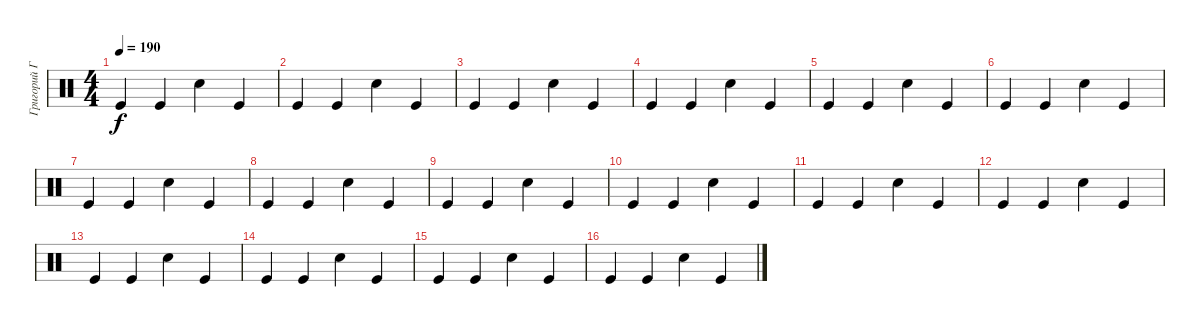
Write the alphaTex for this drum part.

\track ("Григорий Габерман" "Григорий Г") {instrument percussion}
\staff {score}
\articulation defaults
\ts (4 4)
\tempo 190
\clef neutral
\ks c "Kick (hit)".4{dy f} "Kick (hit)".4 "Snare (hit) 2".4 "Kick (hit)".4
|
"Kick (hit)".4 "Kick (hit)".4 "Snare (hit) 2".4 "Kick (hit)".4 |
"Kick (hit)".4 "Kick (hit)".4 "Snare (hit) 2".4 "Kick (hit)".4 |
"Kick (hit)".4 "Kick (hit)".4 "Snare (hit) 2".4 "Kick (hit)".4 |
"Kick (hit)".4 "Kick (hit)".4 "Snare (hit) 2".4 "Kick (hit)".4 |
"Kick (hit)".4 "Kick (hit)".4 "Snare (hit) 2".4 "Kick (hit)".4 |
"Kick (hit)".4 "Kick (hit)".4 "Snare (hit) 2".4 "Kick (hit)".4 |
"Kick (hit)".4 "Kick (hit)".4 "Snare (hit) 2".4 "Kick (hit)".4 |
"Kick (hit)".4 "Kick (hit)".4 "Snare (hit) 2".4 "Kick (hit)".4 |
"Kick (hit)".4 "Kick (hit)".4 "Snare (hit) 2".4 "Kick (hit)".4 |
"Kick (hit)".4 "Kick (hit)".4 "Snare (hit) 2".4 "Kick (hit)".4 |
"Kick (hit)".4 "Kick (hit)".4 "Snare (hit) 2".4 "Kick (hit)".4 |
"Kick (hit)".4 "Kick (hit)".4 "Snare (hit) 2".4 "Kick (hit)".4 |
"Kick (hit)".4 "Kick (hit)".4 "Snare (hit) 2".4 "Kick (hit)".4 |
"Kick (hit)".4 "Kick (hit)".4 "Snare (hit) 2".4 "Kick (hit)".4 |
"Kick (hit)".4 "Kick (hit)".4 "Snare (hit) 2".4 "Kick (hit)".4
